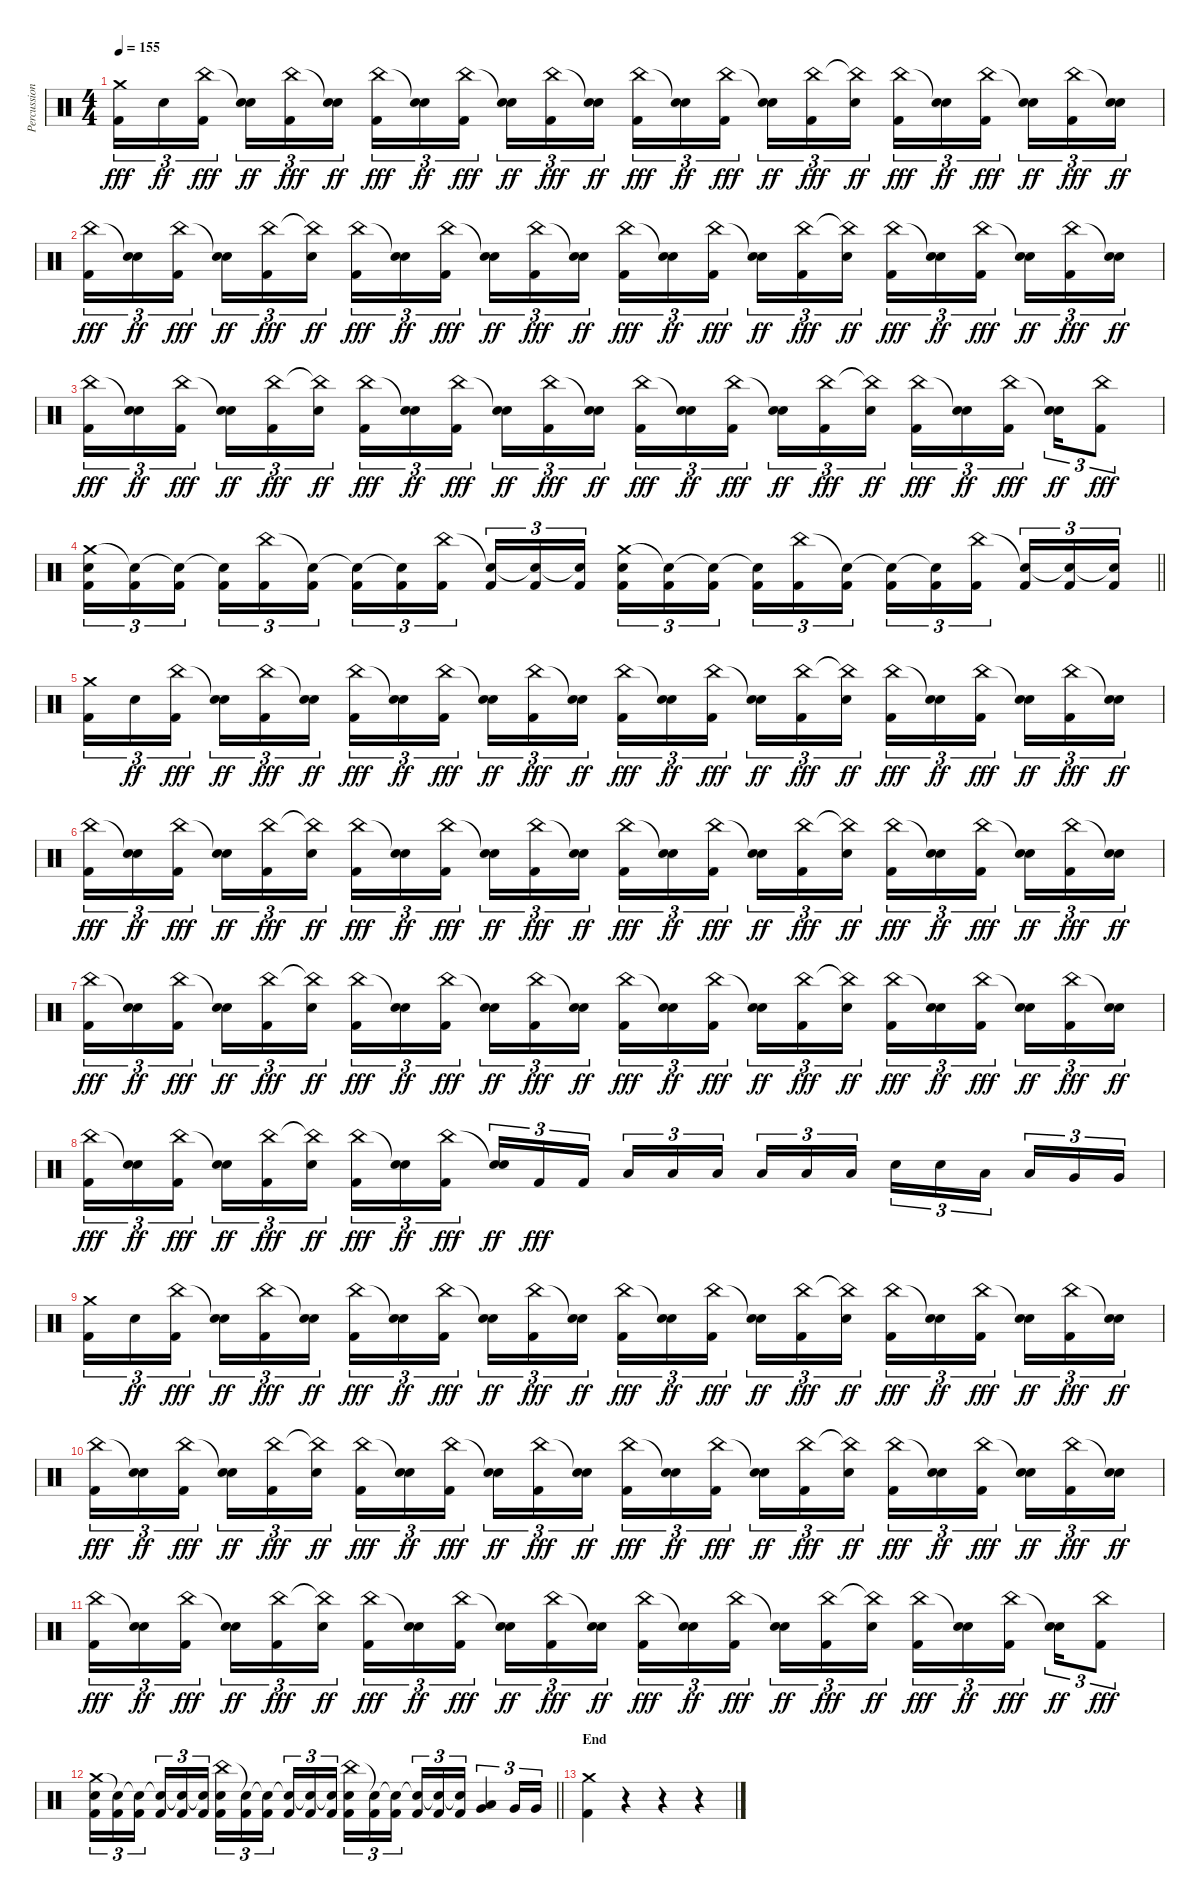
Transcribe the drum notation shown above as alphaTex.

\track ("Percussion" "Percussion") {instrument percussion}
\staff {score}
\articulation defaults
\ts (4 4)
\tempo 155
\clef neutral
\ks c
("Crash medium (hit)" "Kick (hit) 2").16{tu (3 2) dy fff} "Electric Snare (hit)".16{tu (3 2) dy ff} ("China (hit)" "Kick (hit) 2").16{tu (3 2) dy fff beam splitsecondary} ("Snare (hit)"{t} "Electric Snare (hit)").16{tu (3 2) dy ff} ("China (hit)" "Kick (hit) 2").16{tu (3 2) dy fff} ("Snare (hit)"{t} "Electric Snare (hit)").16{tu (3 2) dy ff} ("China (hit)" "Kick (hit) 2").16{tu (3 2) dy fff} ("Snare (hit)"{t} "Electric Snare (hit)").16{tu (3 2) dy ff} ("China (hit)" "Kick (hit) 2").16{tu (3 2) dy fff beam splitsecondary} ("Snare (hit)"{t} "Electric Snare (hit)").16{tu (3 2) dy ff} ("China (hit)" "Kick (hit) 2").16{tu (3 2) dy fff} ("Snare (hit)"{t} "Electric Snare (hit)").16{tu (3 2) dy ff} ("China (hit)" "Kick (hit) 2").16{tu (3 2) dy fff} ("Snare (hit)"{t} "Electric Snare (hit)").16{tu (3 2) dy ff} ("China (hit)" "Kick (hit) 2").16{tu (3 2) dy fff beam splitsecondary} ("Snare (hit)"{t} "Electric Snare (hit)").16{tu (3 2) dy ff} ("China (hit)" "Kick (hit) 2").16{tu (3 2) dy fff} ("China (hit)"{t} "Electric Snare (hit)").16{tu (3 2) dy ff} ("China (hit)" "Kick (hit) 2").16{tu (3 2) dy fff} ("Snare (hit)"{t} "Electric Snare (hit)").16{tu (3 2) dy ff} ("China (hit)" "Kick (hit) 2").16{tu (3 2) dy fff beam splitsecondary} ("Snare (hit)"{t} "Electric Snare (hit)").16{tu (3 2) dy ff} ("China (hit)" "Kick (hit) 2").16{tu (3 2) dy fff} ("Snare (hit)"{t} "Electric Snare (hit)").16{tu (3 2) dy ff} |
("China (hit)" "Kick (hit) 2").16{tu (3 2) dy fff} ("Snare (hit)"{t} "Electric Snare (hit)").16{tu (3 2) dy ff} ("China (hit)" "Kick (hit) 2").16{tu (3 2) dy fff beam splitsecondary} ("Snare (hit)"{t} "Electric Snare (hit)").16{tu (3 2) dy ff} ("China (hit)" "Kick (hit) 2").16{tu (3 2) dy fff} ("China (hit)"{t} "Electric Snare (hit)").16{tu (3 2) dy ff} ("China (hit)" "Kick (hit) 2").16{tu (3 2) dy fff} ("Snare (hit)"{t} "Electric Snare (hit)").16{tu (3 2) dy ff} ("China (hit)" "Kick (hit) 2").16{tu (3 2) dy fff beam splitsecondary} ("Snare (hit)"{t} "Electric Snare (hit)").16{tu (3 2) dy ff} ("China (hit)" "Kick (hit) 2").16{tu (3 2) dy fff} ("Snare (hit)"{t} "Electric Snare (hit)").16{tu (3 2) dy ff} ("China (hit)" "Kick (hit) 2").16{tu (3 2) dy fff} ("Snare (hit)"{t} "Electric Snare (hit)").16{tu (3 2) dy ff} ("China (hit)" "Kick (hit) 2").16{tu (3 2) dy fff beam splitsecondary} ("Snare (hit)"{t} "Electric Snare (hit)").16{tu (3 2) dy ff} ("China (hit)" "Kick (hit) 2").16{tu (3 2) dy fff} ("China (hit)"{t} "Electric Snare (hit)").16{tu (3 2) dy ff} ("China (hit)" "Kick (hit) 2").16{tu (3 2) dy fff} ("Snare (hit)"{t} "Electric Snare (hit)").16{tu (3 2) dy ff} ("China (hit)" "Kick (hit) 2").16{tu (3 2) dy fff beam splitsecondary} ("Snare (hit)"{t} "Electric Snare (hit)").16{tu (3 2) dy ff} ("China (hit)" "Kick (hit) 2").16{tu (3 2) dy fff} ("Snare (hit)"{t} "Electric Snare (hit)").16{tu (3 2) dy ff} |
("China (hit)" "Kick (hit) 2").16{tu (3 2) dy fff} ("Snare (hit)"{t} "Electric Snare (hit)").16{tu (3 2) dy ff} ("China (hit)" "Kick (hit) 2").16{tu (3 2) dy fff beam splitsecondary} ("Snare (hit)"{t} "Electric Snare (hit)").16{tu (3 2) dy ff} ("China (hit)" "Kick (hit) 2").16{tu (3 2) dy fff} ("China (hit)"{t} "Electric Snare (hit)").16{tu (3 2) dy ff} ("China (hit)" "Kick (hit) 2").16{tu (3 2) dy fff} ("Snare (hit)"{t} "Electric Snare (hit)").16{tu (3 2) dy ff} ("China (hit)" "Kick (hit) 2").16{tu (3 2) dy fff beam splitsecondary} ("Snare (hit)"{t} "Electric Snare (hit)").16{tu (3 2) dy ff} ("China (hit)" "Kick (hit) 2").16{tu (3 2) dy fff} ("Snare (hit)"{t} "Electric Snare (hit)").16{tu (3 2) dy ff} ("China (hit)" "Kick (hit) 2").16{tu (3 2) dy fff} ("Snare (hit)"{t} "Electric Snare (hit)").16{tu (3 2) dy ff} ("China (hit)" "Kick (hit) 2").16{tu (3 2) dy fff beam splitsecondary} ("Snare (hit)"{t} "Electric Snare (hit)").16{tu (3 2) dy ff} ("China (hit)" "Kick (hit) 2").16{tu (3 2) dy fff} ("China (hit)"{t} "Electric Snare (hit)").16{tu (3 2) dy ff} ("China (hit)" "Kick (hit) 2").16{tu (3 2) dy fff} ("Snare (hit)"{t} "Electric Snare (hit)").16{tu (3 2) dy ff} ("China (hit)" "Kick (hit) 2").16{tu (3 2) dy fff beam splitsecondary} ("Snare (hit)"{t} "Electric Snare (hit)").16{tu (3 2) dy ff} ("China (hit)" "Kick (hit) 2").8{tu (3 2) dy fff} |
\barLineRight lightlight
("Crash medium (hit)" "Electric Snare (hit)" "Kick (hit) 2").16{tu (3 2)} ("Snare (hit)"{t} "Kick (hit) 2").16{tu (3 2)} ("Snare (hit)"{t} "Kick (hit) 2").16{tu (3 2) beam splitsecondary} ("Snare (hit)"{t} "Kick (hit) 2").16{tu (3 2)} ("China (hit)" "Kick (hit) 2").16{tu (3 2)} ("Snare (hit)"{t} "Kick (hit) 2").16{tu (3 2)} ("Snare (hit)"{t} "Kick (hit) 2").16{tu (3 2)} ("Snare (hit)"{t} "Kick (hit) 2").16{tu (3 2)} ("China (hit)" "Kick (hit) 2").16{tu (3 2) beam splitsecondary} ("Snare (hit)"{t} "Kick (hit) 2").16{tu (3 2)} ("Snare (hit)"{t} "Kick (hit) 2").16{tu (3 2)} ("Snare (hit)"{t} "Kick (hit) 2").16{tu (3 2)} ("Crash medium (hit)" "Electric Snare (hit)" "Kick (hit) 2").16{tu (3 2)} ("Snare (hit)"{t} "Kick (hit) 2").16{tu (3 2)} ("Snare (hit)"{t} "Kick (hit) 2").16{tu (3 2) beam splitsecondary} ("Snare (hit)"{t} "Kick (hit) 2").16{tu (3 2)} ("China (hit)" "Kick (hit) 2").16{tu (3 2)} ("Snare (hit)"{t} "Kick (hit) 2").16{tu (3 2)} ("Snare (hit)"{t} "Kick (hit) 2").16{tu (3 2)} ("Snare (hit)"{t} "Kick (hit) 2").16{tu (3 2)} ("China (hit)" "Kick (hit) 2").16{tu (3 2) beam splitsecondary} ("Snare (hit)"{t} "Kick (hit) 2").16{tu (3 2)} ("Snare (hit)"{t} "Kick (hit) 2").16{tu (3 2)} ("Snare (hit)"{t} "Kick (hit) 2").16{tu (3 2)} |
\section ("" "")
("Crash medium (hit)" "Kick (hit) 2").16{tu (3 2)} "Electric Snare (hit)".16{tu (3 2) dy ff} ("China (hit)" "Kick (hit) 2").16{tu (3 2) dy fff beam splitsecondary} ("Snare (hit)"{t} "Electric Snare (hit)").16{tu (3 2) dy ff} ("China (hit)" "Kick (hit) 2").16{tu (3 2) dy fff} ("Snare (hit)"{t} "Electric Snare (hit)").16{tu (3 2) dy ff} ("China (hit)" "Kick (hit) 2").16{tu (3 2) dy fff} ("Snare (hit)"{t} "Electric Snare (hit)").16{tu (3 2) dy ff} ("China (hit)" "Kick (hit) 2").16{tu (3 2) dy fff beam splitsecondary} ("Snare (hit)"{t} "Electric Snare (hit)").16{tu (3 2) dy ff} ("China (hit)" "Kick (hit) 2").16{tu (3 2) dy fff} ("Snare (hit)"{t} "Electric Snare (hit)").16{tu (3 2) dy ff} ("China (hit)" "Kick (hit) 2").16{tu (3 2) dy fff} ("Snare (hit)"{t} "Electric Snare (hit)").16{tu (3 2) dy ff} ("China (hit)" "Kick (hit) 2").16{tu (3 2) dy fff beam splitsecondary} ("Snare (hit)"{t} "Electric Snare (hit)").16{tu (3 2) dy ff} ("China (hit)" "Kick (hit) 2").16{tu (3 2) dy fff} ("China (hit)"{t} "Electric Snare (hit)").16{tu (3 2) dy ff} ("China (hit)" "Kick (hit) 2").16{tu (3 2) dy fff} ("Snare (hit)"{t} "Electric Snare (hit)").16{tu (3 2) dy ff} ("China (hit)" "Kick (hit) 2").16{tu (3 2) dy fff beam splitsecondary} ("Snare (hit)"{t} "Electric Snare (hit)").16{tu (3 2) dy ff} ("China (hit)" "Kick (hit) 2").16{tu (3 2) dy fff} ("Snare (hit)"{t} "Electric Snare (hit)").16{tu (3 2) dy ff} |
("China (hit)" "Kick (hit) 2").16{tu (3 2) dy fff} ("Snare (hit)"{t} "Electric Snare (hit)").16{tu (3 2) dy ff} ("China (hit)" "Kick (hit) 2").16{tu (3 2) dy fff beam splitsecondary} ("Snare (hit)"{t} "Electric Snare (hit)").16{tu (3 2) dy ff} ("China (hit)" "Kick (hit) 2").16{tu (3 2) dy fff} ("China (hit)"{t} "Electric Snare (hit)").16{tu (3 2) dy ff} ("China (hit)" "Kick (hit) 2").16{tu (3 2) dy fff} ("Snare (hit)"{t} "Electric Snare (hit)").16{tu (3 2) dy ff} ("China (hit)" "Kick (hit) 2").16{tu (3 2) dy fff beam splitsecondary} ("Snare (hit)"{t} "Electric Snare (hit)").16{tu (3 2) dy ff} ("China (hit)" "Kick (hit) 2").16{tu (3 2) dy fff} ("Snare (hit)"{t} "Electric Snare (hit)").16{tu (3 2) dy ff} ("China (hit)" "Kick (hit) 2").16{tu (3 2) dy fff} ("Snare (hit)"{t} "Electric Snare (hit)").16{tu (3 2) dy ff} ("China (hit)" "Kick (hit) 2").16{tu (3 2) dy fff beam splitsecondary} ("Snare (hit)"{t} "Electric Snare (hit)").16{tu (3 2) dy ff} ("China (hit)" "Kick (hit) 2").16{tu (3 2) dy fff} ("China (hit)"{t} "Electric Snare (hit)").16{tu (3 2) dy ff} ("China (hit)" "Kick (hit) 2").16{tu (3 2) dy fff} ("Snare (hit)"{t} "Electric Snare (hit)").16{tu (3 2) dy ff} ("China (hit)" "Kick (hit) 2").16{tu (3 2) dy fff beam splitsecondary} ("Snare (hit)"{t} "Electric Snare (hit)").16{tu (3 2) dy ff} ("China (hit)" "Kick (hit) 2").16{tu (3 2) dy fff} ("Snare (hit)"{t} "Electric Snare (hit)").16{tu (3 2) dy ff} |
("China (hit)" "Kick (hit) 2").16{tu (3 2) dy fff} ("Snare (hit)"{t} "Electric Snare (hit)").16{tu (3 2) dy ff} ("China (hit)" "Kick (hit) 2").16{tu (3 2) dy fff beam splitsecondary} ("Snare (hit)"{t} "Electric Snare (hit)").16{tu (3 2) dy ff} ("China (hit)" "Kick (hit) 2").16{tu (3 2) dy fff} ("China (hit)"{t} "Electric Snare (hit)").16{tu (3 2) dy ff} ("China (hit)" "Kick (hit) 2").16{tu (3 2) dy fff} ("Snare (hit)"{t} "Electric Snare (hit)").16{tu (3 2) dy ff} ("China (hit)" "Kick (hit) 2").16{tu (3 2) dy fff beam splitsecondary} ("Snare (hit)"{t} "Electric Snare (hit)").16{tu (3 2) dy ff} ("China (hit)" "Kick (hit) 2").16{tu (3 2) dy fff} ("Snare (hit)"{t} "Electric Snare (hit)").16{tu (3 2) dy ff} ("China (hit)" "Kick (hit) 2").16{tu (3 2) dy fff} ("Snare (hit)"{t} "Electric Snare (hit)").16{tu (3 2) dy ff} ("China (hit)" "Kick (hit) 2").16{tu (3 2) dy fff beam splitsecondary} ("Snare (hit)"{t} "Electric Snare (hit)").16{tu (3 2) dy ff} ("China (hit)" "Kick (hit) 2").16{tu (3 2) dy fff} ("China (hit)"{t} "Electric Snare (hit)").16{tu (3 2) dy ff} ("China (hit)" "Kick (hit) 2").16{tu (3 2) dy fff} ("Snare (hit)"{t} "Electric Snare (hit)").16{tu (3 2) dy ff} ("China (hit)" "Kick (hit) 2").16{tu (3 2) dy fff beam splitsecondary} ("Snare (hit)"{t} "Electric Snare (hit)").16{tu (3 2) dy ff} ("China (hit)" "Kick (hit) 2").16{tu (3 2) dy fff} ("Snare (hit)"{t} "Electric Snare (hit)").16{tu (3 2) dy ff} |
("China (hit)" "Kick (hit) 2").16{tu (3 2) dy fff} ("Snare (hit)"{t} "Electric Snare (hit)").16{tu (3 2) dy ff} ("China (hit)" "Kick (hit) 2").16{tu (3 2) dy fff beam splitsecondary} ("Snare (hit)"{t} "Electric Snare (hit)").16{tu (3 2) dy ff} ("China (hit)" "Kick (hit) 2").16{tu (3 2) dy fff} ("China (hit)"{t} "Electric Snare (hit)").16{tu (3 2) dy ff} ("China (hit)" "Kick (hit) 2").16{tu (3 2) dy fff} ("Snare (hit)"{t} "Electric Snare (hit)").16{tu (3 2) dy ff} ("China (hit)" "Kick (hit) 2").16{tu (3 2) dy fff beam splitsecondary} ("Snare (hit)"{t} "Electric Snare (hit)").16{tu (3 2) dy ff} "Kick (hit) 2".16{tu (3 2) dy fff} "Kick (hit) 2".16{tu (3 2)} "Low Tom (hit)".16{tu (3 2)} "Low Tom (hit)".16{tu (3 2)} "Low Tom (hit)".16{tu (3 2) beam splitsecondary} "Low Tom (hit)".16{tu (3 2)} "Low Tom (hit)".16{tu (3 2)} "Low Tom (hit)".16{tu (3 2)} "Electric Snare (hit)".16{tu (3 2)} "Electric Snare (hit)".16{tu (3 2)} "Low Tom (hit)".16{tu (3 2) beam splitsecondary} "Low Tom (hit)".16{tu (3 2)} "Very Low Tom (hit)".16{tu (3 2)} "Very Low Tom (hit)".16{tu (3 2)} |
("Crash medium (hit)" "Kick (hit) 2").16{tu (3 2)} "Electric Snare (hit)".16{tu (3 2) dy ff} ("China (hit)" "Kick (hit) 2").16{tu (3 2) dy fff beam splitsecondary} ("Snare (hit)"{t} "Electric Snare (hit)").16{tu (3 2) dy ff} ("China (hit)" "Kick (hit) 2").16{tu (3 2) dy fff} ("Snare (hit)"{t} "Electric Snare (hit)").16{tu (3 2) dy ff} ("China (hit)" "Kick (hit) 2").16{tu (3 2) dy fff} ("Snare (hit)"{t} "Electric Snare (hit)").16{tu (3 2) dy ff} ("China (hit)" "Kick (hit) 2").16{tu (3 2) dy fff beam splitsecondary} ("Snare (hit)"{t} "Electric Snare (hit)").16{tu (3 2) dy ff} ("China (hit)" "Kick (hit) 2").16{tu (3 2) dy fff} ("Snare (hit)"{t} "Electric Snare (hit)").16{tu (3 2) dy ff} ("China (hit)" "Kick (hit) 2").16{tu (3 2) dy fff} ("Snare (hit)"{t} "Electric Snare (hit)").16{tu (3 2) dy ff} ("China (hit)" "Kick (hit) 2").16{tu (3 2) dy fff beam splitsecondary} ("Snare (hit)"{t} "Electric Snare (hit)").16{tu (3 2) dy ff} ("China (hit)" "Kick (hit) 2").16{tu (3 2) dy fff} ("China (hit)"{t} "Electric Snare (hit)").16{tu (3 2) dy ff} ("China (hit)" "Kick (hit) 2").16{tu (3 2) dy fff} ("Snare (hit)"{t} "Electric Snare (hit)").16{tu (3 2) dy ff} ("China (hit)" "Kick (hit) 2").16{tu (3 2) dy fff beam splitsecondary} ("Snare (hit)"{t} "Electric Snare (hit)").16{tu (3 2) dy ff} ("China (hit)" "Kick (hit) 2").16{tu (3 2) dy fff} ("Snare (hit)"{t} "Electric Snare (hit)").16{tu (3 2) dy ff} |
("China (hit)" "Kick (hit) 2").16{tu (3 2) dy fff} ("Snare (hit)"{t} "Electric Snare (hit)").16{tu (3 2) dy ff} ("China (hit)" "Kick (hit) 2").16{tu (3 2) dy fff beam splitsecondary} ("Snare (hit)"{t} "Electric Snare (hit)").16{tu (3 2) dy ff} ("China (hit)" "Kick (hit) 2").16{tu (3 2) dy fff} ("China (hit)"{t} "Electric Snare (hit)").16{tu (3 2) dy ff} ("China (hit)" "Kick (hit) 2").16{tu (3 2) dy fff} ("Snare (hit)"{t} "Electric Snare (hit)").16{tu (3 2) dy ff} ("China (hit)" "Kick (hit) 2").16{tu (3 2) dy fff beam splitsecondary} ("Snare (hit)"{t} "Electric Snare (hit)").16{tu (3 2) dy ff} ("China (hit)" "Kick (hit) 2").16{tu (3 2) dy fff} ("Snare (hit)"{t} "Electric Snare (hit)").16{tu (3 2) dy ff} ("China (hit)" "Kick (hit) 2").16{tu (3 2) dy fff} ("Snare (hit)"{t} "Electric Snare (hit)").16{tu (3 2) dy ff} ("China (hit)" "Kick (hit) 2").16{tu (3 2) dy fff beam splitsecondary} ("Snare (hit)"{t} "Electric Snare (hit)").16{tu (3 2) dy ff} ("China (hit)" "Kick (hit) 2").16{tu (3 2) dy fff} ("China (hit)"{t} "Electric Snare (hit)").16{tu (3 2) dy ff} ("China (hit)" "Kick (hit) 2").16{tu (3 2) dy fff} ("Snare (hit)"{t} "Electric Snare (hit)").16{tu (3 2) dy ff} ("China (hit)" "Kick (hit) 2").16{tu (3 2) dy fff beam splitsecondary} ("Snare (hit)"{t} "Electric Snare (hit)").16{tu (3 2) dy ff} ("China (hit)" "Kick (hit) 2").16{tu (3 2) dy fff} ("Snare (hit)"{t} "Electric Snare (hit)").16{tu (3 2) dy ff} |
("China (hit)" "Kick (hit) 2").16{tu (3 2) dy fff} ("Snare (hit)"{t} "Electric Snare (hit)").16{tu (3 2) dy ff} ("China (hit)" "Kick (hit) 2").16{tu (3 2) dy fff beam splitsecondary} ("Snare (hit)"{t} "Electric Snare (hit)").16{tu (3 2) dy ff} ("China (hit)" "Kick (hit) 2").16{tu (3 2) dy fff} ("China (hit)"{t} "Electric Snare (hit)").16{tu (3 2) dy ff} ("China (hit)" "Kick (hit) 2").16{tu (3 2) dy fff} ("Snare (hit)"{t} "Electric Snare (hit)").16{tu (3 2) dy ff} ("China (hit)" "Kick (hit) 2").16{tu (3 2) dy fff beam splitsecondary} ("Snare (hit)"{t} "Electric Snare (hit)").16{tu (3 2) dy ff} ("China (hit)" "Kick (hit) 2").16{tu (3 2) dy fff} ("Snare (hit)"{t} "Electric Snare (hit)").16{tu (3 2) dy ff} ("China (hit)" "Kick (hit) 2").16{tu (3 2) dy fff} ("Snare (hit)"{t} "Electric Snare (hit)").16{tu (3 2) dy ff} ("China (hit)" "Kick (hit) 2").16{tu (3 2) dy fff beam splitsecondary} ("Snare (hit)"{t} "Electric Snare (hit)").16{tu (3 2) dy ff} ("China (hit)" "Kick (hit) 2").16{tu (3 2) dy fff} ("China (hit)"{t} "Electric Snare (hit)").16{tu (3 2) dy ff} ("China (hit)" "Kick (hit) 2").16{tu (3 2) dy fff} ("Snare (hit)"{t} "Electric Snare (hit)").16{tu (3 2) dy ff} ("China (hit)" "Kick (hit) 2").16{tu (3 2) dy fff beam splitsecondary} ("Snare (hit)"{t} "Electric Snare (hit)").16{tu (3 2) dy ff} ("China (hit)" "Kick (hit) 2").8{tu (3 2) dy fff} |
\barLineRight lightlight
("Crash medium (hit)" "Electric Snare (hit)" "Kick (hit) 2").16{tu (3 2)} ("Snare (hit)"{t} "Kick (hit) 2").16{tu (3 2)} ("Snare (hit)"{t} "Kick (hit) 2").16{tu (3 2) beam splitsecondary} ("Snare (hit)"{t} "Kick (hit) 2").16{tu (3 2)} ("Snare (hit)"{t} "Kick (hit) 2").16{tu (3 2)} ("Snare (hit)"{t} "Kick (hit) 2").16{tu (3 2)} ("China (hit)" "Electric Snare (hit)" "Kick (hit) 2").16{tu (3 2)} ("Snare (hit)"{t} "Kick (hit) 2").16{tu (3 2)} ("Snare (hit)"{t} "Kick (hit) 2").16{tu (3 2) beam splitsecondary} ("Snare (hit)"{t} "Kick (hit) 2").16{tu (3 2)} ("Snare (hit)"{t} "Kick (hit) 2").16{tu (3 2)} ("Snare (hit)"{t} "Kick (hit) 2").16{tu (3 2)} ("China (hit)" "Electric Snare (hit)" "Kick (hit) 2").16{tu (3 2)} ("Snare (hit)"{t} "Kick (hit) 2").16{tu (3 2)} ("Snare (hit)"{t} "Kick (hit) 2").16{tu (3 2) beam splitsecondary} ("Snare (hit)"{t} "Kick (hit) 2").16{tu (3 2)} ("Snare (hit)"{t} "Kick (hit) 2").16{tu (3 2)} ("Snare (hit)"{t} "Kick (hit) 2").16{tu (3 2)} ("Low Tom (hit)" "Very Low Tom (hit)").4{tu (3 2)} "Very Low Tom (hit)".16{tu (3 2)} "Very Low Tom (hit)".16{tu (3 2)} |
\section ("" "End")
("Crash medium (hit)" "Kick (hit) 2").4 r.4 r.4 r.4
